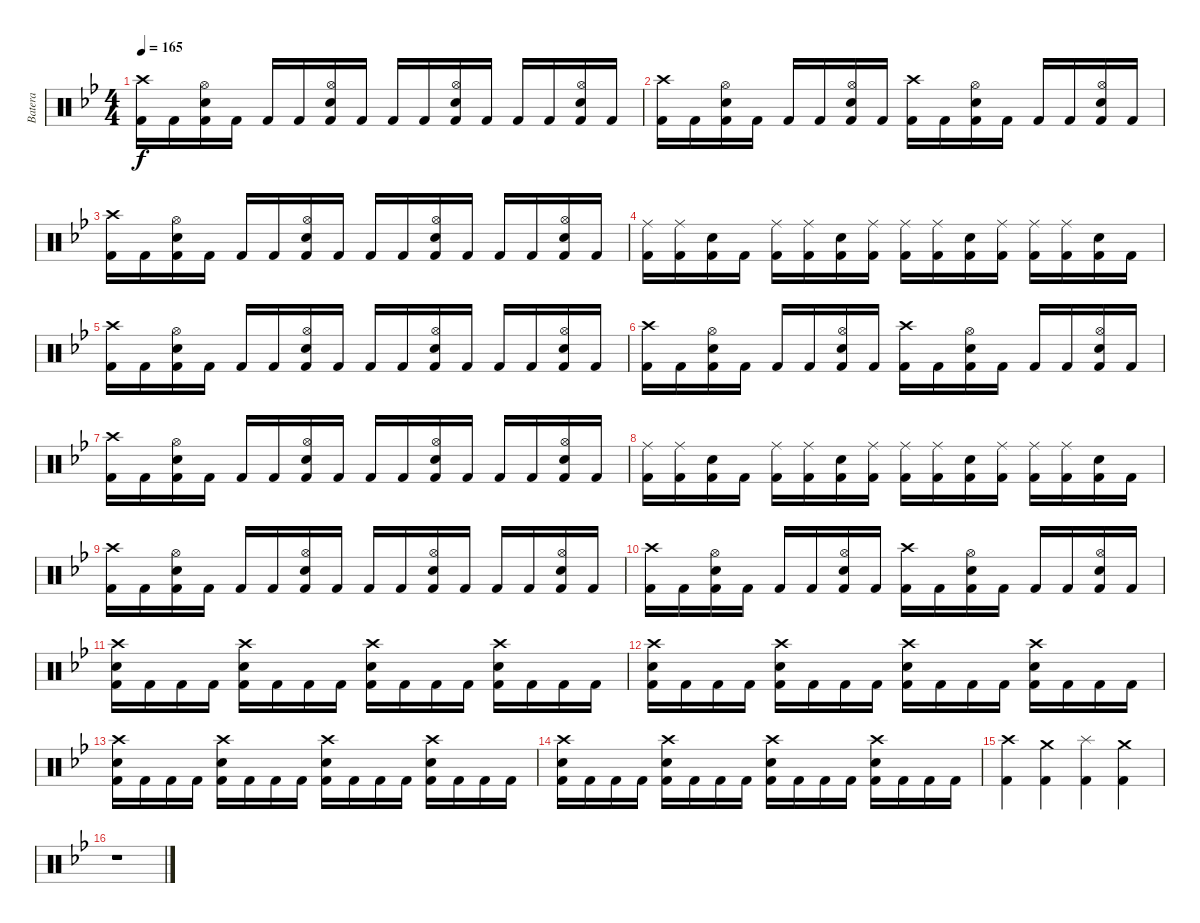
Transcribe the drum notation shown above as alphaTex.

\track ("Batera" "Batera") {instrument percussion}
\staff {score}
\articulation defaults
\ts (4 4)
\tempo 165
\clef neutral
\ks bb
("Crash high (hit)" "Kick (hit) 2").16{dy f} "Kick (hit) 2".16 ("Hi-Hat (open)" "Electric Snare (hit)" "Kick (hit) 2").16 "Kick (hit) 2".16 "Kick (hit) 2".16 "Kick (hit) 2".16 ("Hi-Hat (open)" "Electric Snare (hit)" "Kick (hit) 2").16 "Kick (hit) 2".16 "Kick (hit) 2".16 "Kick (hit) 2".16 ("Hi-Hat (open)" "Electric Snare (hit)" "Kick (hit) 2").16 "Kick (hit) 2".16 "Kick (hit) 2".16 "Kick (hit) 2".16 ("Hi-Hat (open)" "Electric Snare (hit)" "Kick (hit) 2").16 "Kick (hit) 2".16 |
("Crash high (hit)" "Kick (hit) 2").16 "Kick (hit) 2".16 ("Hi-Hat (open)" "Electric Snare (hit)" "Kick (hit) 2").16 "Kick (hit) 2".16 "Kick (hit) 2".16 "Kick (hit) 2".16 ("Hi-Hat (open)" "Electric Snare (hit)" "Kick (hit) 2").16 "Kick (hit) 2".16 ("Crash high (hit)" "Kick (hit) 2").16 "Kick (hit) 2".16 ("Hi-Hat (open)" "Electric Snare (hit)" "Kick (hit) 2").16 "Kick (hit) 2".16 "Kick (hit) 2".16 "Kick (hit) 2".16 ("Hi-Hat (open)" "Electric Snare (hit)" "Kick (hit) 2").16 "Kick (hit) 2".16 |
("Crash high (hit)" "Kick (hit) 2").16 "Kick (hit) 2".16 ("Hi-Hat (open)" "Electric Snare (hit)" "Kick (hit) 2").16 "Kick (hit) 2".16 "Kick (hit) 2".16 "Kick (hit) 2".16 ("Hi-Hat (open)" "Electric Snare (hit)" "Kick (hit) 2").16 "Kick (hit) 2".16 "Kick (hit) 2".16 "Kick (hit) 2".16 ("Hi-Hat (open)" "Electric Snare (hit)" "Kick (hit) 2").16 "Kick (hit) 2".16 "Kick (hit) 2".16 "Kick (hit) 2".16 ("Hi-Hat (open)" "Electric Snare (hit)" "Kick (hit) 2").16 "Kick (hit) 2".16 |
("Ride (middle)" "Kick (hit) 2").16 ("Ride (middle)" "Kick (hit) 2").16 ("Electric Snare (hit)" "Kick (hit) 2").16 "Kick (hit) 2".16 ("Ride (middle)" "Kick (hit) 2").16 ("Ride (middle)" "Kick (hit) 2").16 ("Electric Snare (hit)" "Kick (hit) 2").16 ("Ride (middle)" "Kick (hit) 2").16 ("Ride (middle)" "Kick (hit) 2").16 ("Ride (middle)" "Kick (hit) 2").16 ("Electric Snare (hit)" "Kick (hit) 2").16 ("Ride (middle)" "Kick (hit) 2").16 ("Ride (middle)" "Kick (hit) 2").16 ("Ride (middle)" "Kick (hit) 2").16 ("Electric Snare (hit)" "Kick (hit) 2").16 "Kick (hit) 2".16 |
("Crash high (hit)" "Kick (hit) 2").16 "Kick (hit) 2".16 ("Hi-Hat (open)" "Electric Snare (hit)" "Kick (hit) 2").16 "Kick (hit) 2".16 "Kick (hit) 2".16 "Kick (hit) 2".16 ("Hi-Hat (open)" "Electric Snare (hit)" "Kick (hit) 2").16 "Kick (hit) 2".16 "Kick (hit) 2".16 "Kick (hit) 2".16 ("Hi-Hat (open)" "Electric Snare (hit)" "Kick (hit) 2").16 "Kick (hit) 2".16 "Kick (hit) 2".16 "Kick (hit) 2".16 ("Hi-Hat (open)" "Electric Snare (hit)" "Kick (hit) 2").16 "Kick (hit) 2".16 |
("Crash high (hit)" "Kick (hit) 2").16 "Kick (hit) 2".16 ("Hi-Hat (open)" "Electric Snare (hit)" "Kick (hit) 2").16 "Kick (hit) 2".16 "Kick (hit) 2".16 "Kick (hit) 2".16 ("Hi-Hat (open)" "Electric Snare (hit)" "Kick (hit) 2").16 "Kick (hit) 2".16 ("Crash high (hit)" "Kick (hit) 2").16 "Kick (hit) 2".16 ("Hi-Hat (open)" "Electric Snare (hit)" "Kick (hit) 2").16 "Kick (hit) 2".16 "Kick (hit) 2".16 "Kick (hit) 2".16 ("Hi-Hat (open)" "Electric Snare (hit)" "Kick (hit) 2").16 "Kick (hit) 2".16 |
("Crash high (hit)" "Kick (hit) 2").16 "Kick (hit) 2".16 ("Hi-Hat (open)" "Electric Snare (hit)" "Kick (hit) 2").16 "Kick (hit) 2".16 "Kick (hit) 2".16 "Kick (hit) 2".16 ("Hi-Hat (open)" "Electric Snare (hit)" "Kick (hit) 2").16 "Kick (hit) 2".16 "Kick (hit) 2".16 "Kick (hit) 2".16 ("Hi-Hat (open)" "Electric Snare (hit)" "Kick (hit) 2").16 "Kick (hit) 2".16 "Kick (hit) 2".16 "Kick (hit) 2".16 ("Hi-Hat (open)" "Electric Snare (hit)" "Kick (hit) 2").16 "Kick (hit) 2".16 |
("Ride (middle)" "Kick (hit) 2").16 ("Ride (middle)" "Kick (hit) 2").16 ("Electric Snare (hit)" "Kick (hit) 2").16 "Kick (hit) 2".16 ("Ride (middle)" "Kick (hit) 2").16 ("Ride (middle)" "Kick (hit) 2").16 ("Electric Snare (hit)" "Kick (hit) 2").16 ("Ride (middle)" "Kick (hit) 2").16 ("Ride (middle)" "Kick (hit) 2").16 ("Ride (middle)" "Kick (hit) 2").16 ("Electric Snare (hit)" "Kick (hit) 2").16 ("Ride (middle)" "Kick (hit) 2").16 ("Ride (middle)" "Kick (hit) 2").16 ("Ride (middle)" "Kick (hit) 2").16 ("Electric Snare (hit)" "Kick (hit) 2").16 "Kick (hit) 2".16 |
("Crash high (hit)" "Kick (hit) 2").16 "Kick (hit) 2".16 ("Hi-Hat (open)" "Electric Snare (hit)" "Kick (hit) 2").16 "Kick (hit) 2".16 "Kick (hit) 2".16 "Kick (hit) 2".16 ("Hi-Hat (open)" "Electric Snare (hit)" "Kick (hit) 2").16 "Kick (hit) 2".16 "Kick (hit) 2".16 "Kick (hit) 2".16 ("Hi-Hat (open)" "Electric Snare (hit)" "Kick (hit) 2").16 "Kick (hit) 2".16 "Kick (hit) 2".16 "Kick (hit) 2".16 ("Hi-Hat (open)" "Electric Snare (hit)" "Kick (hit) 2").16 "Kick (hit) 2".16 |
("Crash high (hit)" "Kick (hit) 2").16 "Kick (hit) 2".16 ("Hi-Hat (open)" "Electric Snare (hit)" "Kick (hit) 2").16 "Kick (hit) 2".16 "Kick (hit) 2".16 "Kick (hit) 2".16 ("Hi-Hat (open)" "Electric Snare (hit)" "Kick (hit) 2").16 "Kick (hit) 2".16 ("Crash high (hit)" "Kick (hit) 2").16 "Kick (hit) 2".16 ("Hi-Hat (open)" "Electric Snare (hit)" "Kick (hit) 2").16 "Kick (hit) 2".16 "Kick (hit) 2".16 "Kick (hit) 2".16 ("Hi-Hat (open)" "Electric Snare (hit)" "Kick (hit) 2").16 "Kick (hit) 2".16 |
("Crash high (hit)" "Electric Snare (hit)" "Kick (hit) 2").16 "Kick (hit) 2".16 "Kick (hit) 2".16 "Kick (hit) 2".16 ("Crash high (hit)" "Electric Snare (hit)" "Kick (hit) 2").16 "Kick (hit) 2".16 "Kick (hit) 2".16 "Kick (hit) 2".16 ("Crash high (hit)" "Electric Snare (hit)" "Kick (hit) 2").16 "Kick (hit) 2".16 "Kick (hit) 2".16 "Kick (hit) 2".16 ("Crash high (hit)" "Electric Snare (hit)" "Kick (hit) 2").16 "Kick (hit) 2".16 "Kick (hit) 2".16 "Kick (hit) 2".16 |
("Crash high (hit)" "Electric Snare (hit)" "Kick (hit) 2").16 "Kick (hit) 2".16 "Kick (hit) 2".16 "Kick (hit) 2".16 ("Crash high (hit)" "Electric Snare (hit)" "Kick (hit) 2").16 "Kick (hit) 2".16 "Kick (hit) 2".16 "Kick (hit) 2".16 ("Crash high (hit)" "Electric Snare (hit)" "Kick (hit) 2").16 "Kick (hit) 2".16 "Kick (hit) 2".16 "Kick (hit) 2".16 ("Crash high (hit)" "Electric Snare (hit)" "Kick (hit) 2").16 "Kick (hit) 2".16 "Kick (hit) 2".16 "Kick (hit) 2".16 |
("Crash high (hit)" "Electric Snare (hit)" "Kick (hit) 2").16 "Kick (hit) 2".16 "Kick (hit) 2".16 "Kick (hit) 2".16 ("Crash high (hit)" "Electric Snare (hit)" "Kick (hit) 2").16 "Kick (hit) 2".16 "Kick (hit) 2".16 "Kick (hit) 2".16 ("Crash high (hit)" "Electric Snare (hit)" "Kick (hit) 2").16 "Kick (hit) 2".16 "Kick (hit) 2".16 "Kick (hit) 2".16 ("Crash high (hit)" "Electric Snare (hit)" "Kick (hit) 2").16 "Kick (hit) 2".16 "Kick (hit) 2".16 "Kick (hit) 2".16 |
("Crash high (hit)" "Electric Snare (hit)" "Kick (hit) 2").16 "Kick (hit) 2".16 "Kick (hit) 2".16 "Kick (hit) 2".16 ("Crash high (hit)" "Electric Snare (hit)" "Kick (hit) 2").16 "Kick (hit) 2".16 "Kick (hit) 2".16 "Kick (hit) 2".16 ("Crash high (hit)" "Electric Snare (hit)" "Kick (hit) 2").16 "Kick (hit) 2".16 "Kick (hit) 2".16 "Kick (hit) 2".16 ("Crash high (hit)" "Electric Snare (hit)" "Kick (hit) 2").16 "Kick (hit) 2".16 "Kick (hit) 2".16 "Kick (hit) 2".16 |
("Crash high (hit)" "Kick (hit) 2").4 ("Crash medium (hit)" "Kick (hit) 2").4 ("Splash (hit)" "Kick (hit) 2").4 ("Crash medium (hit)" "Kick (hit) 2").4 |
r.1
